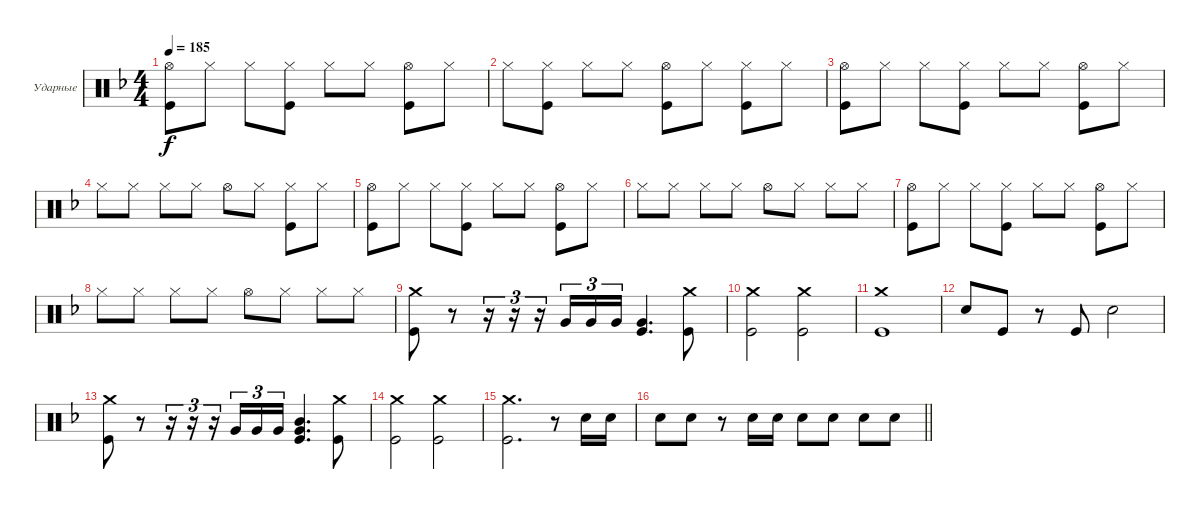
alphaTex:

\bracketExtendMode groupsimilarinstruments
\firstSystemTrackNameOrientation horizontal
\otherSystemsTrackNameOrientation horizontal
\track ("Александр Львов" "Ударные") {instrument percussion}
\staff {score}
\articulation defaults
\ts (4 4)
\tempo 185
\clef neutral
\ks dminor
("Kick (hit)" "Hi-Hat (open)").8{dy f} "Hi-Hat (closed)".8 "Hi-Hat (closed)".8 ("Hi-Hat (closed)" "Kick (hit)").8 "Hi-Hat (closed)".8 "Hi-Hat (closed)".8 ("Hi-Hat (open)" "Kick (hit)").8 "Hi-Hat (closed)".8 |
"Hi-Hat (closed)".8 ("Hi-Hat (closed)" "Kick (hit)").8 "Hi-Hat (closed)".8 "Hi-Hat (closed)".8 ("Hi-Hat (open)" "Kick (hit)").8 "Hi-Hat (closed)".8 ("Hi-Hat (closed)" "Kick (hit)").8 "Hi-Hat (closed)".8 |
("Kick (hit)" "Hi-Hat (open)").8 "Hi-Hat (closed)".8 "Hi-Hat (closed)".8 ("Hi-Hat (closed)" "Kick (hit)").8 "Hi-Hat (closed)".8 "Hi-Hat (closed)".8 ("Hi-Hat (open)" "Kick (hit)").8 "Hi-Hat (closed)".8 |
"Hi-Hat (closed)".8 "Hi-Hat (closed)".8 "Hi-Hat (closed)".8 "Hi-Hat (closed)".8 "Hi-Hat (open)".8 "Hi-Hat (closed)".8 ("Hi-Hat (closed)" "Kick (hit)").8 "Hi-Hat (closed)".8 |
("Kick (hit)" "Hi-Hat (open)").8 "Hi-Hat (closed)".8 "Hi-Hat (closed)".8 ("Hi-Hat (closed)" "Kick (hit)").8 "Hi-Hat (closed)".8 "Hi-Hat (closed)".8 ("Hi-Hat (open)" "Kick (hit)").8 "Hi-Hat (closed)".8 |
"Hi-Hat (closed)".8 "Hi-Hat (closed)".8 "Hi-Hat (closed)".8 "Hi-Hat (closed)".8 "Hi-Hat (open)".8 "Hi-Hat (closed)".8 "Hi-Hat (closed)".8 "Hi-Hat (closed)".8 |
("Kick (hit)" "Hi-Hat (open)").8 "Hi-Hat (closed)".8 "Hi-Hat (closed)".8 ("Hi-Hat (closed)" "Kick (hit)").8 "Hi-Hat (closed)".8 "Hi-Hat (closed)".8 ("Hi-Hat (open)" "Kick (hit)").8 "Hi-Hat (closed)".8 |
"Hi-Hat (closed)".8 "Hi-Hat (closed)".8 "Hi-Hat (closed)".8 "Hi-Hat (closed)".8 "Hi-Hat (open)".8 "Hi-Hat (closed)".8 "Hi-Hat (closed)".8 "Hi-Hat (closed)".8 |
("Kick (hit)" "Crash medium (hit)").8 r.8 r.16{tu (3 2)} r.16{tu (3 2)} r.16{tu (3 2)} "Very Low Tom (hit)".16{tu (3 2)} "Very Low Tom (hit)".16{tu (3 2)} "Very Low Tom (hit)".16{tu (3 2)} ("Kick (hit)" "Very Low Tom (hit)").4{d} ("Kick (hit)" "Crash medium (hit)").8 |
("Kick (hit)" "Crash medium (hit)").2 ("Kick (hit)" "Crash medium (hit)").2 |
("Kick (hit)" "Crash medium (hit)").1 |
"Snare (hit) 2".8 "Kick (hit)".8 r.8 "Kick (hit)".8 "Snare (hit) 2".2 |
("Kick (hit)" "Crash medium (hit)").8 r.8 r.16{tu (3 2)} r.16{tu (3 2)} r.16{tu (3 2)} "Very Low Tom (hit)".16{tu (3 2)} "Very Low Tom (hit)".16{tu (3 2)} "Very Low Tom (hit)".16{tu (3 2)} ("Very Low Tom (hit)" "Mid Tom (hit)" "Kick (hit)").4{d} ("Kick (hit)" "Crash medium (hit)").8 |
("Kick (hit)" "Crash medium (hit)").2 ("Kick (hit)" "Crash medium (hit)").2 |
("Kick (hit)" "Crash medium (hit)").2{d} r.8 "Snare (hit) 2".16 "Snare (hit) 2".16 |
\barLineRight lightlight "Snare (hit) 2".8 "Snare (hit) 2".8
r.8 "Snare (hit) 2".16 "Snare (hit) 2".16 "Snare (hit) 2".8 "Snare (hit) 2".8 "Snare (hit) 2".8 "Snare (hit) 2".8
